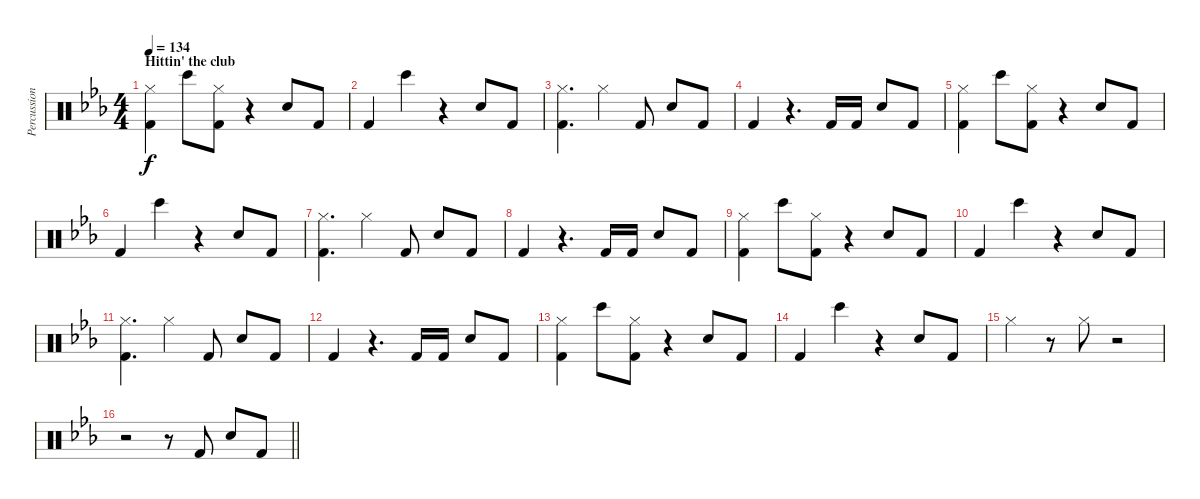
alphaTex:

\track ("Percussion" "Percussion") {instrument percussion}
\staff {score}
\articulation defaults
\ts (4 4)
\section ("" "Hittin' the club")
\tempo 134
\clef neutral
\ks eb
("Hi-Hat (closed)" "Kick (hit) 2").4{dy f} "Bongo High (hit)".8 ("Hi-Hat (closed)" "Kick (hit) 2").8 r.4 "Hand Clap (hit)".8 "Kick (hit) 2".8 |
"Kick (hit) 2".4 "Bongo High (hit)".4 r.4 "Hand Clap (hit)".8 "Kick (hit) 2".8 |
("Hi-Hat (closed)" "Kick (hit) 2").4{d} "Hi-Hat (closed)".4 "Kick (hit) 2".8 "Hand Clap (hit)".8 "Kick (hit) 2".8 |
"Kick (hit) 2".4 r.4{d} "Kick (hit) 2".16 "Kick (hit) 2".16 "Hand Clap (hit)".8 "Kick (hit) 2".8 |
("Hi-Hat (closed)" "Kick (hit) 2").4 "Bongo High (hit)".8 ("Hi-Hat (closed)" "Kick (hit) 2").8 r.4 "Hand Clap (hit)".8 "Kick (hit) 2".8 |
"Kick (hit) 2".4 "Bongo High (hit)".4 r.4 "Hand Clap (hit)".8 "Kick (hit) 2".8 |
("Hi-Hat (closed)" "Kick (hit) 2").4{d} "Hi-Hat (closed)".4 "Kick (hit) 2".8 "Hand Clap (hit)".8 "Kick (hit) 2".8 |
"Kick (hit) 2".4 r.4{d} "Kick (hit) 2".16 "Kick (hit) 2".16 "Hand Clap (hit)".8 "Kick (hit) 2".8 |
("Hi-Hat (closed)" "Kick (hit) 2").4 "Bongo High (hit)".8 ("Hi-Hat (closed)" "Kick (hit) 2").8 r.4 "Hand Clap (hit)".8 "Kick (hit) 2".8 |
"Kick (hit) 2".4 "Bongo High (hit)".4 r.4 "Hand Clap (hit)".8 "Kick (hit) 2".8 |
("Hi-Hat (closed)" "Kick (hit) 2").4{d} "Hi-Hat (closed)".4 "Kick (hit) 2".8 "Hand Clap (hit)".8 "Kick (hit) 2".8 |
"Kick (hit) 2".4 r.4{d} "Kick (hit) 2".16 "Kick (hit) 2".16 "Hand Clap (hit)".8 "Kick (hit) 2".8 |
("Hi-Hat (closed)" "Kick (hit) 2").4 "Bongo High (hit)".8 ("Hi-Hat (closed)" "Kick (hit) 2").8 r.4 "Hand Clap (hit)".8 "Kick (hit) 2".8 |
"Kick (hit) 2".4 "Bongo High (hit)".4 r.4 "Hand Clap (hit)".8 "Kick (hit) 2".8 |
"Hi-Hat (closed)".4 r.8 "Hi-Hat (closed)".8 r.2 |
\barLineRight lightlight
r.2 r.8 "Kick (hit) 2".8 "Hand Clap (hit)".8 "Kick (hit) 2".8
